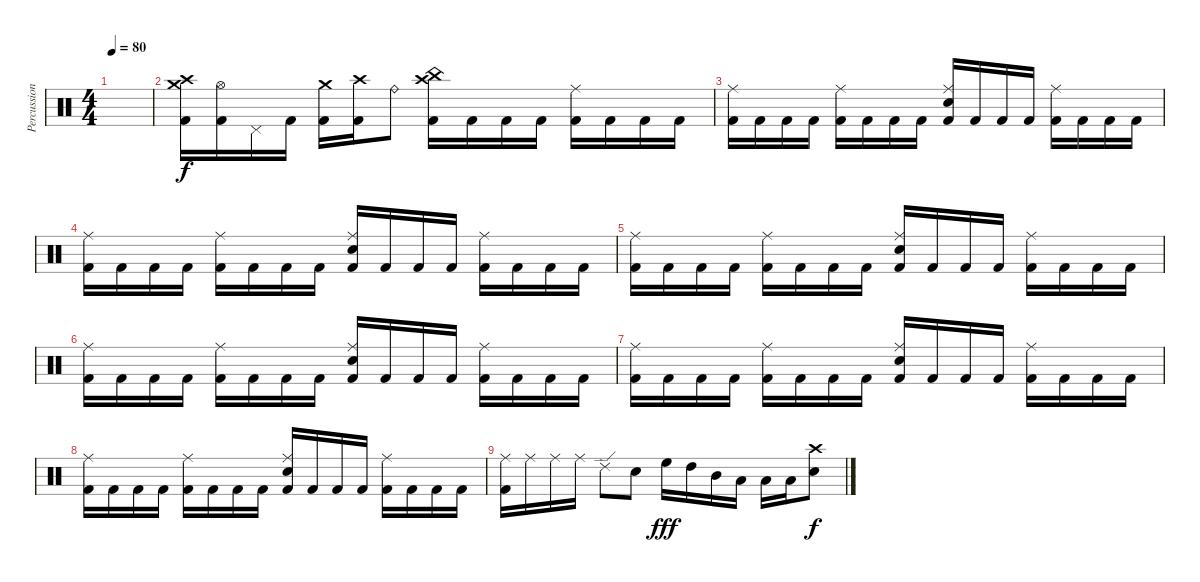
\track ("Percussion" "Percussion") {instrument percussion}
\staff {score}
\articulation defaults
\ts (4 4)
\tempo 80
\clef neutral
\ks c
|
("Crash medium (hit)" "Crash high (hit)" "Kick (hit) 2").16 ("Hi-Hat (open)" "Kick (hit) 2").16 "Pedal Hi-Hat (hit)".16 "Kick (hit) 2".16 ("Crash medium (hit)" "Kick (hit) 2").16 ("Crash high (hit)" "Kick (hit) 2").16 "Ride (bell)".8 ("China (hit)" "Crash high (hit)" "Kick (hit) 2").16 "Kick (hit) 2".16 "Kick (hit) 2".16 "Kick (hit) 2".16 ("Ride (middle)" "Kick (hit) 2").16 "Kick (hit) 2".16 "Kick (hit) 2".16 "Kick (hit) 2".16 |
("Ride (middle)" "Kick (hit) 2").16 "Kick (hit) 2".16 "Kick (hit) 2".16 "Kick (hit) 2".16 ("Ride (middle)" "Kick (hit) 2").16 "Kick (hit) 2".16 "Kick (hit) 2".16 "Kick (hit) 2".16 ("Ride (middle)" "Snare (hit) 2" "Kick (hit) 2").16 "Kick (hit) 2".16 "Kick (hit) 2".16 "Kick (hit) 2".16 ("Ride (middle)" "Kick (hit) 2").16 "Kick (hit) 2".16 "Kick (hit) 2".16 "Kick (hit) 2".16 |
("Ride (middle)" "Kick (hit) 2").16 "Kick (hit) 2".16 "Kick (hit) 2".16 "Kick (hit) 2".16 ("Ride (middle)" "Kick (hit) 2").16 "Kick (hit) 2".16 "Kick (hit) 2".16 "Kick (hit) 2".16 ("Ride (middle)" "Snare (hit) 2" "Kick (hit) 2").16 "Kick (hit) 2".16 "Kick (hit) 2".16 "Kick (hit) 2".16 ("Ride (middle)" "Kick (hit) 2").16 "Kick (hit) 2".16 "Kick (hit) 2".16 "Kick (hit) 2".16 |
("Ride (middle)" "Kick (hit) 2").16 "Kick (hit) 2".16 "Kick (hit) 2".16 "Kick (hit) 2".16 ("Ride (middle)" "Kick (hit) 2").16 "Kick (hit) 2".16 "Kick (hit) 2".16 "Kick (hit) 2".16 ("Ride (middle)" "Snare (hit) 2" "Kick (hit) 2").16 "Kick (hit) 2".16 "Kick (hit) 2".16 "Kick (hit) 2".16 ("Ride (middle)" "Kick (hit) 2").16 "Kick (hit) 2".16 "Kick (hit) 2".16 "Kick (hit) 2".16 |
("Ride (middle)" "Kick (hit) 2").16 "Kick (hit) 2".16 "Kick (hit) 2".16 "Kick (hit) 2".16 ("Ride (middle)" "Kick (hit) 2").16 "Kick (hit) 2".16 "Kick (hit) 2".16 "Kick (hit) 2".16 ("Ride (middle)" "Snare (hit) 2" "Kick (hit) 2").16 "Kick (hit) 2".16 "Kick (hit) 2".16 "Kick (hit) 2".16 ("Ride (middle)" "Kick (hit) 2").16 "Kick (hit) 2".16 "Kick (hit) 2".16 "Kick (hit) 2".16 |
("Ride (middle)" "Kick (hit) 2").16 "Kick (hit) 2".16 "Kick (hit) 2".16 "Kick (hit) 2".16 ("Ride (middle)" "Kick (hit) 2").16 "Kick (hit) 2".16 "Kick (hit) 2".16 "Kick (hit) 2".16 ("Ride (middle)" "Snare (hit) 2" "Kick (hit) 2").16 "Kick (hit) 2".16 "Kick (hit) 2".16 "Kick (hit) 2".16 ("Ride (middle)" "Kick (hit) 2").16 "Kick (hit) 2".16 "Kick (hit) 2".16 "Kick (hit) 2".16 |
("Ride (middle)" "Kick (hit) 2").16 "Kick (hit) 2".16 "Kick (hit) 2".16 "Kick (hit) 2".16 ("Ride (middle)" "Kick (hit) 2").16 "Kick (hit) 2".16 "Kick (hit) 2".16 "Kick (hit) 2".16 ("Ride (middle)" "Snare (hit) 2" "Kick (hit) 2").16 "Kick (hit) 2".16 "Kick (hit) 2".16 "Kick (hit) 2".16 ("Ride (middle)" "Kick (hit) 2").16 "Kick (hit) 2".16 "Kick (hit) 2".16 "Kick (hit) 2".16 |
("Ride (middle)" "Kick (hit) 2").16 "Ride (middle)".16 "Ride (middle)".16 "Ride (middle)".16 "Ride (edge) 2".8 "Snare (hit) 2".8 "High Floor Tom (hit)".16{dy fff} "High Tom (hit)".16 "Mid Tom (hit)".16 "Low Tom (hit)".16 "Low Tom (hit)".16 "Low Tom (hit)".16 ("Crash high (hit)" "Snare (hit) 2").8{dy f}
